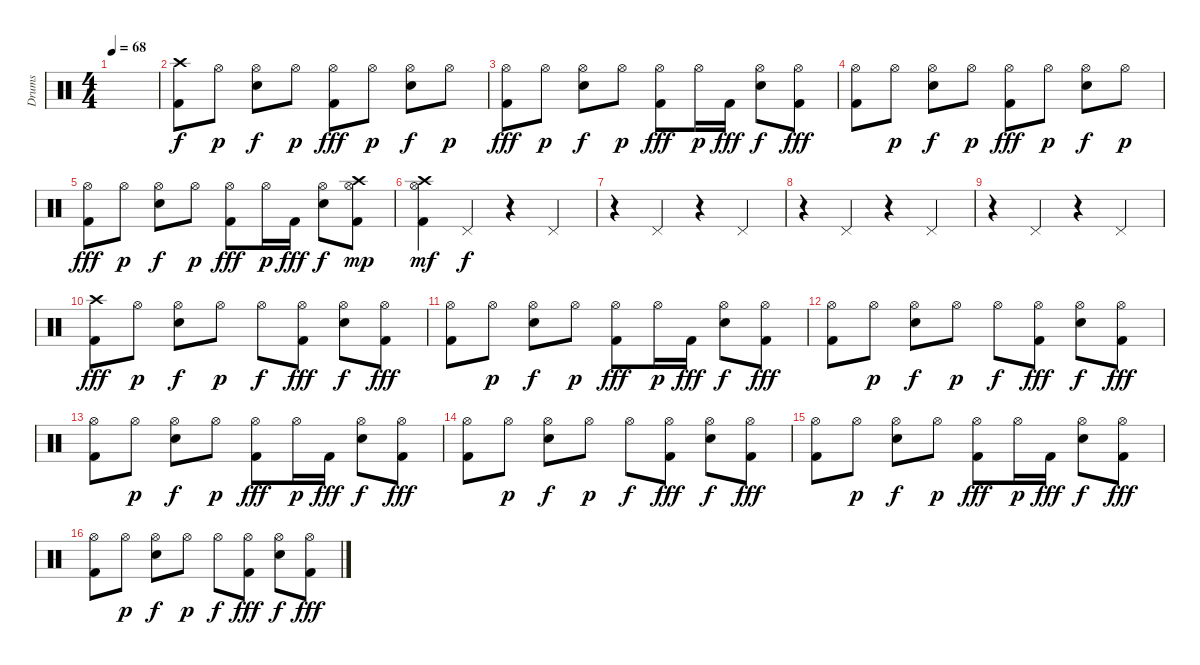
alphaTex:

\track ("Drums" "Drums") {instrument percussion}
\staff {score}
\articulation defaults
\ts (4 4)
\tempo 68
\clef neutral
\ks c
|
("Kick (hit) 2" "Crash high (hit)").8 "Hi-Hat (open)".8{dy p} ("Hi-Hat (open)" "Snare (hit) 2").8{dy f} "Hi-Hat (open)".8{dy p} ("Hi-Hat (open)" "Kick (hit) 2").8{dy fff} "Hi-Hat (open)".8{dy p} ("Hi-Hat (open)" "Snare (hit) 2").8{dy f} "Hi-Hat (open)".8{dy p} |
("Hi-Hat (open)" "Kick (hit) 2").8{dy fff} "Hi-Hat (open)".8{dy p} ("Hi-Hat (open)" "Snare (hit) 2").8{dy f} "Hi-Hat (open)".8{dy p} ("Hi-Hat (open)" "Kick (hit) 2").8{dy fff} "Hi-Hat (open)".16{dy p} "Kick (hit) 2".16{dy fff} ("Hi-Hat (open)" "Snare (hit) 2").8{dy f} ("Hi-Hat (open)" "Kick (hit) 2").8{dy fff} |
("Hi-Hat (open)" "Kick (hit) 2").8 "Hi-Hat (open)".8{dy p} ("Hi-Hat (open)" "Snare (hit) 2").8{dy f} "Hi-Hat (open)".8{dy p} ("Hi-Hat (open)" "Kick (hit) 2").8{dy fff} "Hi-Hat (open)".8{dy p} ("Hi-Hat (open)" "Snare (hit) 2").8{dy f} "Hi-Hat (open)".8{dy p} |
("Hi-Hat (open)" "Kick (hit) 2").8{dy fff} "Hi-Hat (open)".8{dy p} ("Hi-Hat (open)" "Snare (hit) 2").8{dy f} "Hi-Hat (open)".8{dy p} ("Hi-Hat (open)" "Kick (hit) 2").8{dy fff} "Hi-Hat (open)".16{dy p} "Kick (hit) 2".16{dy fff} ("Hi-Hat (open)" "Snare (hit) 2").8{dy f} ("Hi-Hat (open)" "Kick (hit) 2" "Crash high (hit)").8{dy mp} |
("Hi-Hat (open)" "Kick (hit) 2" "Crash high (hit)").4{dy mf} "Pedal Hi-Hat (hit)".4{dy f} r.4 "Pedal Hi-Hat (hit)".4 |
r.4 "Pedal Hi-Hat (hit)".4 r.4 "Pedal Hi-Hat (hit)".4 |
r.4 "Pedal Hi-Hat (hit)".4 r.4 "Pedal Hi-Hat (hit)".4 |
r.4 "Pedal Hi-Hat (hit)".4 r.4 "Pedal Hi-Hat (hit)".4 |
("Kick (hit) 2" "Crash high (hit)").8{dy fff} "Hi-Hat (open)".8{dy p} ("Hi-Hat (open)" "Snare (hit) 2").8{dy f} "Hi-Hat (open)".8{dy p} "Hi-Hat (open)".8{dy f} ("Hi-Hat (open)" "Kick (hit) 2").8{dy fff} ("Hi-Hat (open)" "Snare (hit) 2").8{dy f} ("Hi-Hat (open)" "Kick (hit) 2").8{dy fff} |
("Hi-Hat (open)" "Kick (hit) 2").8 "Hi-Hat (open)".8{dy p} ("Hi-Hat (open)" "Snare (hit) 2").8{dy f} "Hi-Hat (open)".8{dy p} ("Hi-Hat (open)" "Kick (hit) 2").8{dy fff} "Hi-Hat (open)".16{dy p} "Kick (hit) 2".16{dy fff} ("Hi-Hat (open)" "Snare (hit) 2").8{dy f} ("Hi-Hat (open)" "Kick (hit) 2").8{dy fff} |
("Hi-Hat (open)" "Kick (hit) 2").8 "Hi-Hat (open)".8{dy p} ("Hi-Hat (open)" "Snare (hit) 2").8{dy f} "Hi-Hat (open)".8{dy p} "Hi-Hat (open)".8{dy f} ("Hi-Hat (open)" "Kick (hit) 2").8{dy fff} ("Hi-Hat (open)" "Snare (hit) 2").8{dy f} ("Hi-Hat (open)" "Kick (hit) 2").8{dy fff} |
("Hi-Hat (open)" "Kick (hit) 2").8 "Hi-Hat (open)".8{dy p} ("Hi-Hat (open)" "Snare (hit) 2").8{dy f} "Hi-Hat (open)".8{dy p} ("Hi-Hat (open)" "Kick (hit) 2").8{dy fff} "Hi-Hat (open)".16{dy p} "Kick (hit) 2".16{dy fff} ("Hi-Hat (open)" "Snare (hit) 2").8{dy f} ("Hi-Hat (open)" "Kick (hit) 2").8{dy fff} |
("Hi-Hat (open)" "Kick (hit) 2").8 "Hi-Hat (open)".8{dy p} ("Hi-Hat (open)" "Snare (hit) 2").8{dy f} "Hi-Hat (open)".8{dy p} "Hi-Hat (open)".8{dy f} ("Hi-Hat (open)" "Kick (hit) 2").8{dy fff} ("Hi-Hat (open)" "Snare (hit) 2").8{dy f} ("Hi-Hat (open)" "Kick (hit) 2").8{dy fff} |
("Hi-Hat (open)" "Kick (hit) 2").8 "Hi-Hat (open)".8{dy p} ("Hi-Hat (open)" "Snare (hit) 2").8{dy f} "Hi-Hat (open)".8{dy p} ("Hi-Hat (open)" "Kick (hit) 2").8{dy fff} "Hi-Hat (open)".16{dy p} "Kick (hit) 2".16{dy fff} ("Hi-Hat (open)" "Snare (hit) 2").8{dy f} ("Hi-Hat (open)" "Kick (hit) 2").8{dy fff} |
("Hi-Hat (open)" "Kick (hit) 2").8 "Hi-Hat (open)".8{dy p} ("Hi-Hat (open)" "Snare (hit) 2").8{dy f} "Hi-Hat (open)".8{dy p} "Hi-Hat (open)".8{dy f} ("Hi-Hat (open)" "Kick (hit) 2").8{dy fff} ("Hi-Hat (open)" "Snare (hit) 2").8{dy f} ("Hi-Hat (open)" "Kick (hit) 2").8{dy fff}
